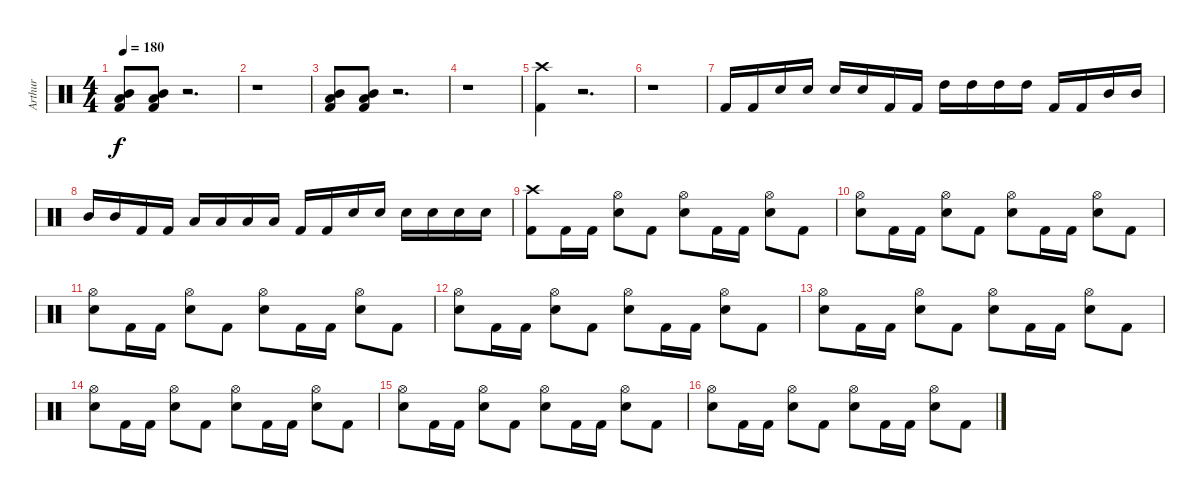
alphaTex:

\track ("Arthur" "Arthur") {instrument percussion}
\staff {score}
\articulation defaults
\ts (4 4)
\tempo 180
\clef neutral
\ks c
("Mid Tom (hit)" "Low Tom (hit)" "Kick (hit) 2").8{dy f} ("Mid Tom (hit)" "Low Tom (hit)" "Kick (hit) 2").8 r.2{d} |
r.1 |
("Mid Tom (hit)" "Low Tom (hit)" "Kick (hit) 2").8 ("Mid Tom (hit)" "Low Tom (hit)" "Kick (hit) 2").8 r.2{d} |
r.1 |
("Crash high (hit)" "Kick (hit) 2").4 r.2{d} |
r.1 |
"Kick (hit) 2".16 "Kick (hit) 2".16 "Electric Snare (hit)".16 "Electric Snare (hit)".16 "Electric Snare (hit)".16 "Electric Snare (hit)".16 "Kick (hit) 2".16 "Kick (hit) 2".16 "High Tom (hit)".16 "High Tom (hit)".16 "High Tom (hit)".16 "High Tom (hit)".16 "Kick (hit) 2".16 "Kick (hit) 2".16 "Mid Tom (hit)".16 "Mid Tom (hit)".16 |
"Mid Tom (hit)".16 "Mid Tom (hit)".16 "Kick (hit) 2".16 "Kick (hit) 2".16 "Low Tom (hit)".16 "Low Tom (hit)".16 "Low Tom (hit)".16 "Low Tom (hit)".16 "Kick (hit) 2".16 "Kick (hit) 2".16 "Electric Snare (hit)".16 "Electric Snare (hit)".16 "Electric Snare (hit)".16 "Electric Snare (hit)".16 "Electric Snare (hit)".16 "Electric Snare (hit)".16 |
("Crash high (hit)" "Kick (hit) 2").8 "Kick (hit) 2".16 "Kick (hit) 2".16 ("Hi-Hat (open)" "Electric Snare (hit)").8 "Kick (hit) 2".8 ("Hi-Hat (open)" "Electric Snare (hit)").8 "Kick (hit) 2".16 "Kick (hit) 2".16 ("Hi-Hat (open)" "Electric Snare (hit)").8 "Kick (hit) 2".8 |
("Hi-Hat (open)" "Electric Snare (hit)").8 "Kick (hit) 2".16 "Kick (hit) 2".16 ("Hi-Hat (open)" "Electric Snare (hit)").8 "Kick (hit) 2".8 ("Hi-Hat (open)" "Electric Snare (hit)").8 "Kick (hit) 2".16 "Kick (hit) 2".16 ("Hi-Hat (open)" "Electric Snare (hit)").8 "Kick (hit) 2".8 |
("Hi-Hat (open)" "Electric Snare (hit)").8 "Kick (hit) 2".16 "Kick (hit) 2".16 ("Hi-Hat (open)" "Electric Snare (hit)").8 "Kick (hit) 2".8 ("Hi-Hat (open)" "Electric Snare (hit)").8 "Kick (hit) 2".16 "Kick (hit) 2".16 ("Hi-Hat (open)" "Electric Snare (hit)").8 "Kick (hit) 2".8 |
("Hi-Hat (open)" "Electric Snare (hit)").8 "Kick (hit) 2".16 "Kick (hit) 2".16 ("Hi-Hat (open)" "Electric Snare (hit)").8 "Kick (hit) 2".8 ("Hi-Hat (open)" "Electric Snare (hit)").8 "Kick (hit) 2".16 "Kick (hit) 2".16 ("Hi-Hat (open)" "Electric Snare (hit)").8 "Kick (hit) 2".8 |
("Hi-Hat (open)" "Electric Snare (hit)").8 "Kick (hit) 2".16 "Kick (hit) 2".16 ("Hi-Hat (open)" "Electric Snare (hit)").8 "Kick (hit) 2".8 ("Hi-Hat (open)" "Electric Snare (hit)").8 "Kick (hit) 2".16 "Kick (hit) 2".16 ("Hi-Hat (open)" "Electric Snare (hit)").8 "Kick (hit) 2".8 |
("Hi-Hat (open)" "Electric Snare (hit)").8 "Kick (hit) 2".16 "Kick (hit) 2".16 ("Hi-Hat (open)" "Electric Snare (hit)").8 "Kick (hit) 2".8 ("Hi-Hat (open)" "Electric Snare (hit)").8 "Kick (hit) 2".16 "Kick (hit) 2".16 ("Hi-Hat (open)" "Electric Snare (hit)").8 "Kick (hit) 2".8 |
("Hi-Hat (open)" "Electric Snare (hit)").8 "Kick (hit) 2".16 "Kick (hit) 2".16 ("Hi-Hat (open)" "Electric Snare (hit)").8 "Kick (hit) 2".8 ("Hi-Hat (open)" "Electric Snare (hit)").8 "Kick (hit) 2".16 "Kick (hit) 2".16 ("Hi-Hat (open)" "Electric Snare (hit)").8 "Kick (hit) 2".8 |
("Hi-Hat (open)" "Electric Snare (hit)").8 "Kick (hit) 2".16 "Kick (hit) 2".16 ("Hi-Hat (open)" "Electric Snare (hit)").8 "Kick (hit) 2".8 ("Hi-Hat (open)" "Electric Snare (hit)").8 "Kick (hit) 2".16 "Kick (hit) 2".16 ("Hi-Hat (open)" "Electric Snare (hit)").8 "Kick (hit) 2".8
